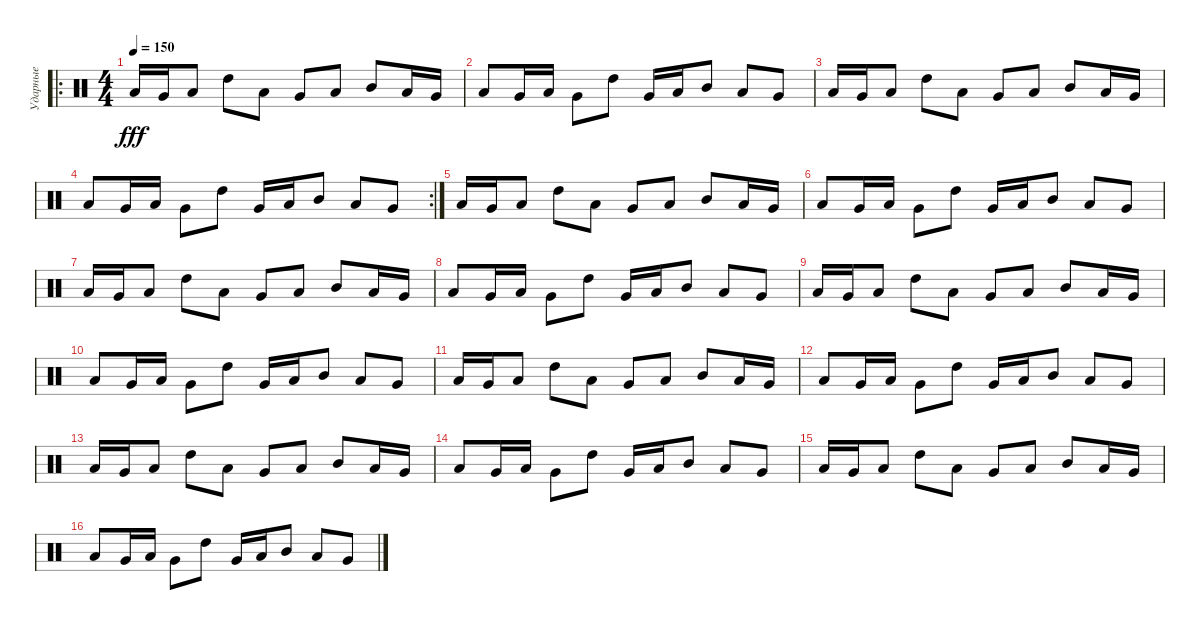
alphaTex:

\track ("Ударные" "Ударные") {instrument percussion}
\staff {score}
\articulation defaults
\ro
\ts (4 4)
\tempo 150
\clef neutral
\ks c "Low Floor Tom (hit)".16{dy fff} "Very Low Tom (hit)".16 "Low Tom (hit)".8 "High Tom (hit)".8 "Low Tom (hit)".8 "Very Low Tom (hit)".8 "Low Floor Tom (hit)".8 "Mid Tom (hit)".8 "Low Tom (hit)".16 "Very Low Tom (hit)".16
|
"Low Floor Tom (hit)".8 "Very Low Tom (hit)".16 "Low Tom (hit)".16 "Very Low Tom (hit)".8 "High Tom (hit)".8 "Very Low Tom (hit)".16 "Low Floor Tom (hit)".16 "Mid Tom (hit)".8 "Low Tom (hit)".8 "Very Low Tom (hit)".8 |
"Low Floor Tom (hit)".16 "Very Low Tom (hit)".16 "Low Tom (hit)".8 "High Tom (hit)".8 "Low Tom (hit)".8 "Very Low Tom (hit)".8 "Low Floor Tom (hit)".8 "Mid Tom (hit)".8 "Low Tom (hit)".16 "Very Low Tom (hit)".16 |
\rc 2 "Low Floor Tom (hit)".8 "Very Low Tom (hit)".16 "Low Tom (hit)".16 "Very Low Tom (hit)".8 "High Tom (hit)".8 "Very Low Tom (hit)".16 "Low Floor Tom (hit)".16 "Mid Tom (hit)".8 "Low Tom (hit)".8 "Very Low Tom (hit)".8
|
"Low Floor Tom (hit)".16 "Very Low Tom (hit)".16 "Low Tom (hit)".8 "High Tom (hit)".8 "Low Tom (hit)".8 "Very Low Tom (hit)".8 "Low Floor Tom (hit)".8 "Mid Tom (hit)".8 "Low Tom (hit)".16 "Very Low Tom (hit)".16 |
"Low Floor Tom (hit)".8 "Very Low Tom (hit)".16 "Low Tom (hit)".16 "Very Low Tom (hit)".8 "High Tom (hit)".8 "Very Low Tom (hit)".16 "Low Floor Tom (hit)".16 "Mid Tom (hit)".8 "Low Tom (hit)".8 "Very Low Tom (hit)".8 |
"Low Floor Tom (hit)".16 "Very Low Tom (hit)".16 "Low Tom (hit)".8 "High Tom (hit)".8 "Low Tom (hit)".8 "Very Low Tom (hit)".8 "Low Floor Tom (hit)".8 "Mid Tom (hit)".8 "Low Tom (hit)".16 "Very Low Tom (hit)".16 |
"Low Floor Tom (hit)".8 "Very Low Tom (hit)".16 "Low Tom (hit)".16 "Very Low Tom (hit)".8 "High Tom (hit)".8 "Very Low Tom (hit)".16 "Low Floor Tom (hit)".16 "Mid Tom (hit)".8 "Low Tom (hit)".8 "Very Low Tom (hit)".8 |
"Low Floor Tom (hit)".16 "Very Low Tom (hit)".16 "Low Tom (hit)".8 "High Tom (hit)".8 "Low Tom (hit)".8 "Very Low Tom (hit)".8 "Low Floor Tom (hit)".8 "Mid Tom (hit)".8 "Low Tom (hit)".16 "Very Low Tom (hit)".16 |
"Low Floor Tom (hit)".8 "Very Low Tom (hit)".16 "Low Tom (hit)".16 "Very Low Tom (hit)".8 "High Tom (hit)".8 "Very Low Tom (hit)".16 "Low Floor Tom (hit)".16 "Mid Tom (hit)".8 "Low Tom (hit)".8 "Very Low Tom (hit)".8 |
"Low Floor Tom (hit)".16 "Very Low Tom (hit)".16 "Low Tom (hit)".8 "High Tom (hit)".8 "Low Tom (hit)".8 "Very Low Tom (hit)".8 "Low Floor Tom (hit)".8 "Mid Tom (hit)".8 "Low Tom (hit)".16 "Very Low Tom (hit)".16 |
"Low Floor Tom (hit)".8 "Very Low Tom (hit)".16 "Low Tom (hit)".16 "Very Low Tom (hit)".8 "High Tom (hit)".8 "Very Low Tom (hit)".16 "Low Floor Tom (hit)".16 "Mid Tom (hit)".8 "Low Tom (hit)".8 "Very Low Tom (hit)".8 |
"Low Floor Tom (hit)".16 "Very Low Tom (hit)".16 "Low Tom (hit)".8 "High Tom (hit)".8 "Low Tom (hit)".8 "Very Low Tom (hit)".8 "Low Floor Tom (hit)".8 "Mid Tom (hit)".8 "Low Tom (hit)".16 "Very Low Tom (hit)".16 |
"Low Floor Tom (hit)".8 "Very Low Tom (hit)".16 "Low Tom (hit)".16 "Very Low Tom (hit)".8 "High Tom (hit)".8 "Very Low Tom (hit)".16 "Low Floor Tom (hit)".16 "Mid Tom (hit)".8 "Low Tom (hit)".8 "Very Low Tom (hit)".8 |
"Low Floor Tom (hit)".16 "Very Low Tom (hit)".16 "Low Tom (hit)".8 "High Tom (hit)".8 "Low Tom (hit)".8 "Very Low Tom (hit)".8 "Low Floor Tom (hit)".8 "Mid Tom (hit)".8 "Low Tom (hit)".16 "Very Low Tom (hit)".16 |
"Low Floor Tom (hit)".8 "Very Low Tom (hit)".16 "Low Tom (hit)".16 "Very Low Tom (hit)".8 "High Tom (hit)".8 "Very Low Tom (hit)".16 "Low Floor Tom (hit)".16 "Mid Tom (hit)".8 "Low Tom (hit)".8 "Very Low Tom (hit)".8
